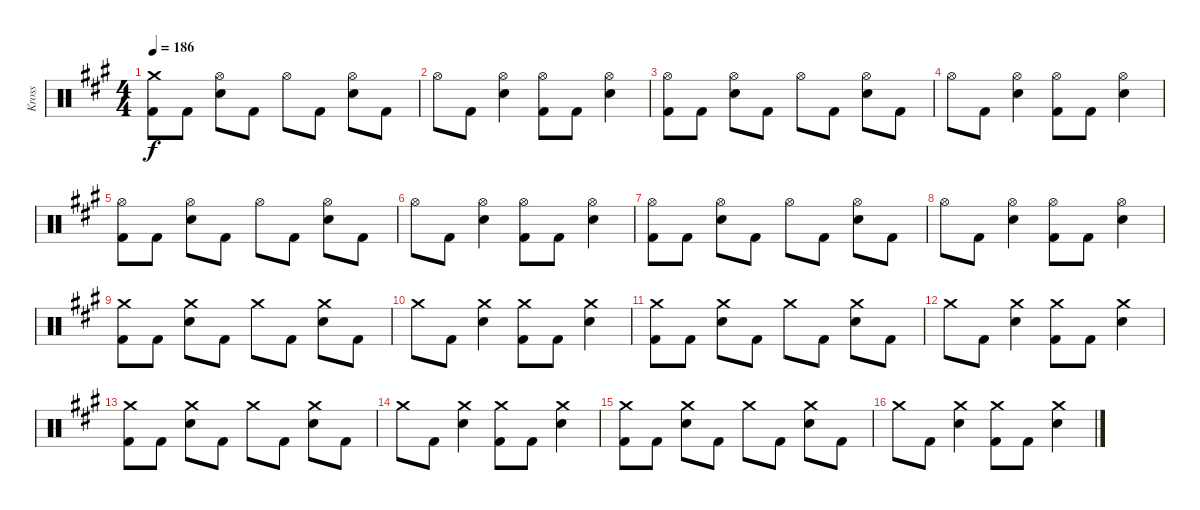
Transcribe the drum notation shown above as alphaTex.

\track ("Kross" "Kross") {instrument percussion}
\staff {score}
\articulation defaults
\ts (4 4)
\tempo 186
\clef neutral
\ks a
("Crash medium (hit)" "Kick (hit) 2").8{dy f} "Kick (hit) 2".8 ("Hi-Hat (open)" "Electric Snare (hit)").8 "Kick (hit) 2".8 "Hi-Hat (open)".8 "Kick (hit) 2".8 ("Hi-Hat (open)" "Electric Snare (hit)").8 "Kick (hit) 2".8 |
"Hi-Hat (open)".8 "Kick (hit) 2".8 ("Hi-Hat (open)" "Electric Snare (hit)").4 ("Hi-Hat (open)" "Kick (hit) 2").8 "Kick (hit) 2".8 ("Hi-Hat (open)" "Electric Snare (hit)").4 |
("Hi-Hat (open)" "Kick (hit) 2").8 "Kick (hit) 2".8 ("Hi-Hat (open)" "Electric Snare (hit)").8 "Kick (hit) 2".8 "Hi-Hat (open)".8 "Kick (hit) 2".8 ("Hi-Hat (open)" "Electric Snare (hit)").8 "Kick (hit) 2".8 |
"Hi-Hat (open)".8 "Kick (hit) 2".8 ("Hi-Hat (open)" "Electric Snare (hit)").4 ("Hi-Hat (open)" "Kick (hit) 2").8 "Kick (hit) 2".8 ("Hi-Hat (open)" "Electric Snare (hit)").4 |
("Hi-Hat (open)" "Kick (hit) 2").8 "Kick (hit) 2".8 ("Hi-Hat (open)" "Electric Snare (hit)").8 "Kick (hit) 2".8 "Hi-Hat (open)".8 "Kick (hit) 2".8 ("Hi-Hat (open)" "Electric Snare (hit)").8 "Kick (hit) 2".8 |
"Hi-Hat (open)".8 "Kick (hit) 2".8 ("Hi-Hat (open)" "Electric Snare (hit)").4 ("Hi-Hat (open)" "Kick (hit) 2").8 "Kick (hit) 2".8 ("Hi-Hat (open)" "Electric Snare (hit)").4 |
("Hi-Hat (open)" "Kick (hit) 2").8 "Kick (hit) 2".8 ("Hi-Hat (open)" "Electric Snare (hit)").8 "Kick (hit) 2".8 "Hi-Hat (open)".8 "Kick (hit) 2".8 ("Hi-Hat (open)" "Electric Snare (hit)").8 "Kick (hit) 2".8 |
"Hi-Hat (open)".8 "Kick (hit) 2".8 ("Hi-Hat (open)" "Electric Snare (hit)").4 ("Hi-Hat (open)" "Kick (hit) 2").8 "Kick (hit) 2".8 ("Hi-Hat (open)" "Electric Snare (hit)").4 |
("Crash medium (hit)" "Kick (hit) 2").8 "Kick (hit) 2".8 ("Crash medium (hit)" "Electric Snare (hit)").8 "Kick (hit) 2".8 "Crash medium (hit)".8 "Kick (hit) 2".8 ("Crash medium (hit)" "Electric Snare (hit)").8 "Kick (hit) 2".8 |
"Crash medium (hit)".8 "Kick (hit) 2".8 ("Crash medium (hit)" "Electric Snare (hit)").4 ("Crash medium (hit)" "Kick (hit) 2").8 "Kick (hit) 2".8 ("Crash medium (hit)" "Electric Snare (hit)").4 |
("Crash medium (hit)" "Kick (hit) 2").8 "Kick (hit) 2".8 ("Crash medium (hit)" "Electric Snare (hit)").8 "Kick (hit) 2".8 "Crash medium (hit)".8 "Kick (hit) 2".8 ("Crash medium (hit)" "Electric Snare (hit)").8 "Kick (hit) 2".8 |
"Crash medium (hit)".8 "Kick (hit) 2".8 ("Crash medium (hit)" "Electric Snare (hit)").4 ("Crash medium (hit)" "Kick (hit) 2").8 "Kick (hit) 2".8 ("Crash medium (hit)" "Electric Snare (hit)").4 |
("Crash medium (hit)" "Kick (hit) 2").8 "Kick (hit) 2".8 ("Crash medium (hit)" "Electric Snare (hit)").8 "Kick (hit) 2".8 "Crash medium (hit)".8 "Kick (hit) 2".8 ("Crash medium (hit)" "Electric Snare (hit)").8 "Kick (hit) 2".8 |
"Crash medium (hit)".8 "Kick (hit) 2".8 ("Crash medium (hit)" "Electric Snare (hit)").4 ("Crash medium (hit)" "Kick (hit) 2").8 "Kick (hit) 2".8 ("Crash medium (hit)" "Electric Snare (hit)").4 |
("Crash medium (hit)" "Kick (hit) 2").8 "Kick (hit) 2".8 ("Crash medium (hit)" "Electric Snare (hit)").8 "Kick (hit) 2".8 "Crash medium (hit)".8 "Kick (hit) 2".8 ("Crash medium (hit)" "Electric Snare (hit)").8 "Kick (hit) 2".8 |
"Crash medium (hit)".8 "Kick (hit) 2".8 ("Crash medium (hit)" "Electric Snare (hit)").4 ("Crash medium (hit)" "Kick (hit) 2").8 "Kick (hit) 2".8 ("Crash medium (hit)" "Electric Snare (hit)").4
